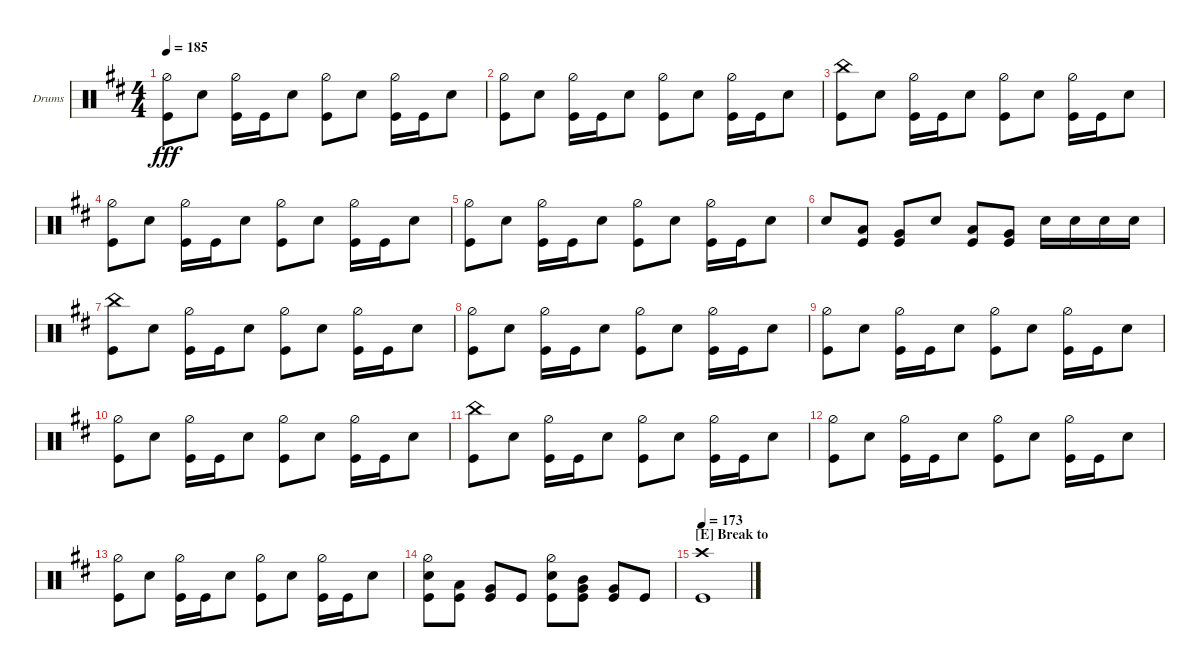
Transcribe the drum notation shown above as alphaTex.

\defaultSystemsLayout 4
\bracketExtendMode groupsimilarinstruments
\firstSystemTrackNameOrientation horizontal
\otherSystemsTrackNameOrientation horizontal
\track ("Drumkit" "Drums") {instrument percussion}
\staff {score}
\articulation defaults
\ts (4 4)
\tempo 185
\clef neutral
\ks bminor
("Hi-Hat (half)" "Kick (hit)").8{dy fff} "Snare (hit) 2".8 ("Kick (hit)" "Hi-Hat (half)").16 "Kick (hit)".16 "Snare (hit) 2".8 ("Hi-Hat (half)" "Kick (hit)").8 "Snare (hit) 2".8 ("Kick (hit)" "Hi-Hat (half)").16 "Kick (hit)".16 "Snare (hit) 2".8 |
("Hi-Hat (half)" "Kick (hit)").8 "Snare (hit) 2".8 ("Kick (hit)" "Hi-Hat (half)").16 "Kick (hit)".16 "Snare (hit) 2".8 ("Hi-Hat (half)" "Kick (hit)").8 "Snare (hit) 2".8 ("Kick (hit)" "Hi-Hat (half)").16 "Kick (hit)".16 "Snare (hit) 2".8 |
("Kick (hit)" "China (hit)").8 "Snare (hit) 2".8 ("Kick (hit)" "Hi-Hat (half)").16 "Kick (hit)".16 "Snare (hit) 2".8 ("Hi-Hat (half)" "Kick (hit)").8 "Snare (hit) 2".8 ("Kick (hit)" "Hi-Hat (half)").16 "Kick (hit)".16 "Snare (hit) 2".8 |
("Hi-Hat (half)" "Kick (hit)").8 "Snare (hit) 2".8 ("Kick (hit)" "Hi-Hat (half)").16 "Kick (hit)".16 "Snare (hit) 2".8 ("Hi-Hat (half)" "Kick (hit)").8 "Snare (hit) 2".8 ("Kick (hit)" "Hi-Hat (half)").16 "Kick (hit)".16 "Snare (hit) 2".8 |
("Hi-Hat (half)" "Kick (hit)").8 "Snare (hit) 2".8 ("Kick (hit)" "Hi-Hat (half)").16 "Kick (hit)".16 "Snare (hit) 2".8 ("Hi-Hat (half)" "Kick (hit)").8 "Snare (hit) 2".8 ("Kick (hit)" "Hi-Hat (half)").16 "Kick (hit)".16 "Snare (hit) 2".8 |
"Snare (hit) 2".8 ("Low Tom (hit)" "Kick (hit)").8 ("Very Low Tom (hit)" "Kick (hit)").8 "Snare (hit) 2".8 ("Low Tom (hit)" "Kick (hit)").8 ("Very Low Tom (hit)" "Kick (hit)").8 "Snare (hit) 2".16 "Snare (hit) 2".16 "Snare (hit) 2".16 "Snare (hit) 2".16 |
("Kick (hit)" "China (hit)").8 "Snare (hit) 2".8 ("Kick (hit)" "Hi-Hat (half)").16 "Kick (hit)".16 "Snare (hit) 2".8 ("Hi-Hat (half)" "Kick (hit)").8 "Snare (hit) 2".8 ("Kick (hit)" "Hi-Hat (half)").16 "Kick (hit)".16 "Snare (hit) 2".8 |
("Hi-Hat (half)" "Kick (hit)").8 "Snare (hit) 2".8 ("Kick (hit)" "Hi-Hat (half)").16 "Kick (hit)".16 "Snare (hit) 2".8 ("Hi-Hat (half)" "Kick (hit)").8 "Snare (hit) 2".8 ("Kick (hit)" "Hi-Hat (half)").16 "Kick (hit)".16 "Snare (hit) 2".8 |
("Hi-Hat (half)" "Kick (hit)").8 "Snare (hit) 2".8 ("Kick (hit)" "Hi-Hat (half)").16 "Kick (hit)".16 "Snare (hit) 2".8 ("Hi-Hat (half)" "Kick (hit)").8 "Snare (hit) 2".8 ("Kick (hit)" "Hi-Hat (half)").16 "Kick (hit)".16 "Snare (hit) 2".8 |
("Hi-Hat (half)" "Kick (hit)").8 "Snare (hit) 2".8 ("Kick (hit)" "Hi-Hat (half)").16 "Kick (hit)".16 "Snare (hit) 2".8 ("Hi-Hat (half)" "Kick (hit)").8 "Snare (hit) 2".8 ("Kick (hit)" "Hi-Hat (half)").16 "Kick (hit)".16 "Snare (hit) 2".8 |
("Kick (hit)" "China (hit)").8 "Snare (hit) 2".8 ("Kick (hit)" "Hi-Hat (half)").16 "Kick (hit)".16 "Snare (hit) 2".8 ("Hi-Hat (half)" "Kick (hit)").8 "Snare (hit) 2".8 ("Kick (hit)" "Hi-Hat (half)").16 "Kick (hit)".16 "Snare (hit) 2".8 |
("Hi-Hat (half)" "Kick (hit)").8 "Snare (hit) 2".8 ("Kick (hit)" "Hi-Hat (half)").16 "Kick (hit)".16 "Snare (hit) 2".8 ("Hi-Hat (half)" "Kick (hit)").8 "Snare (hit) 2".8 ("Kick (hit)" "Hi-Hat (half)").16 "Kick (hit)".16 "Snare (hit) 2".8 |
("Hi-Hat (half)" "Kick (hit)").8 "Snare (hit) 2".8 ("Kick (hit)" "Hi-Hat (half)").16 "Kick (hit)".16 "Snare (hit) 2".8 ("Hi-Hat (half)" "Kick (hit)").8 "Snare (hit) 2".8 ("Kick (hit)" "Hi-Hat (half)").16 "Kick (hit)".16 "Snare (hit) 2".8 |
("Snare (hit) 2" "Kick (hit)" "Hi-Hat (half)").8 ("Kick (hit)" "Low Tom (hit)").8 ("Kick (hit)" "Very Low Tom (hit)").8 "Kick (hit)".8 ("Snare (hit) 2" "Kick (hit)" "Hi-Hat (half)").8 ("Very Low Tom (hit)" "Kick (hit)" "Mid Tom (hit)").8 ("Kick (hit)" "Very Low Tom (hit)").8 "Kick (hit)".8 |
\section ("E" "Break to")
\tempo 173
("Kick (hit)" "Crash high (hit)").1
